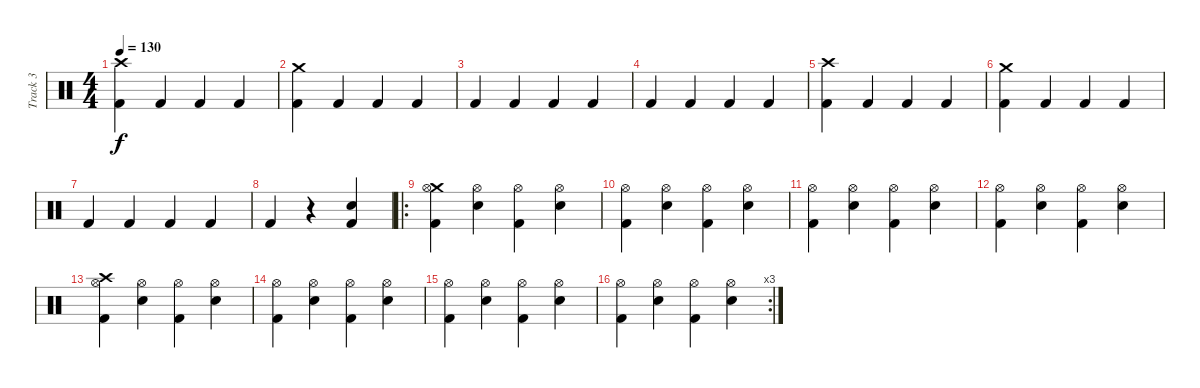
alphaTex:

\track ("Track 3" "Track 3") {instrument percussion}
\staff {score}
\articulation defaults
\ts (4 4)
\tempo 130
\clef neutral
\ks c
("Crash high (hit)" "Kick (hit) 2").4{dy f} "Kick (hit) 2".4 "Kick (hit) 2".4 "Kick (hit) 2".4 |
("Crash medium (hit)" "Kick (hit) 2").4 "Kick (hit) 2".4 "Kick (hit) 2".4 "Kick (hit) 2".4 |
"Kick (hit) 2".4 "Kick (hit) 2".4 "Kick (hit) 2".4 "Kick (hit) 2".4 |
"Kick (hit) 2".4 "Kick (hit) 2".4 "Kick (hit) 2".4 "Kick (hit) 2".4 |
("Crash high (hit)" "Kick (hit) 2").4 "Kick (hit) 2".4 "Kick (hit) 2".4 "Kick (hit) 2".4 |
("Crash medium (hit)" "Kick (hit) 2").4 "Kick (hit) 2".4 "Kick (hit) 2".4 "Kick (hit) 2".4 |
"Kick (hit) 2".4 "Kick (hit) 2".4 "Kick (hit) 2".4 "Kick (hit) 2".4 |
"Kick (hit) 2".4 r.4 ("Snare (hit) 2" "Kick (hit) 2").4 |
\ro
("Crash medium (hit)" "Hi-Hat (open)" "Kick (hit) 2").4 ("Hi-Hat (open)" "Snare (hit) 2").4 ("Hi-Hat (open)" "Kick (hit) 2").4 ("Hi-Hat (open)" "Snare (hit) 2").4 |
("Hi-Hat (open)" "Kick (hit) 2").4 ("Hi-Hat (open)" "Snare (hit) 2").4 ("Hi-Hat (open)" "Kick (hit) 2").4 ("Hi-Hat (open)" "Snare (hit) 2").4 |
("Hi-Hat (open)" "Kick (hit) 2").4 ("Hi-Hat (open)" "Snare (hit) 2").4 ("Hi-Hat (open)" "Kick (hit) 2").4 ("Hi-Hat (open)" "Snare (hit) 2").4 |
("Hi-Hat (open)" "Kick (hit) 2").4 ("Hi-Hat (open)" "Snare (hit) 2").4 ("Hi-Hat (open)" "Kick (hit) 2").4 ("Hi-Hat (open)" "Snare (hit) 2").4 |
("Crash high (hit)" "Hi-Hat (open)" "Kick (hit) 2").4 ("Hi-Hat (open)" "Snare (hit) 2").4 ("Hi-Hat (open)" "Kick (hit) 2").4 ("Hi-Hat (open)" "Snare (hit) 2").4 |
("Hi-Hat (open)" "Kick (hit) 2").4 ("Hi-Hat (open)" "Snare (hit) 2").4 ("Hi-Hat (open)" "Kick (hit) 2").4 ("Hi-Hat (open)" "Snare (hit) 2").4 |
("Hi-Hat (open)" "Kick (hit) 2").4 ("Hi-Hat (open)" "Snare (hit) 2").4 ("Hi-Hat (open)" "Kick (hit) 2").4 ("Hi-Hat (open)" "Snare (hit) 2").4 |
\rc 3
("Hi-Hat (open)" "Kick (hit) 2").4 ("Hi-Hat (open)" "Snare (hit) 2").4 ("Hi-Hat (open)" "Kick (hit) 2").4 ("Hi-Hat (open)" "Snare (hit) 2").4
